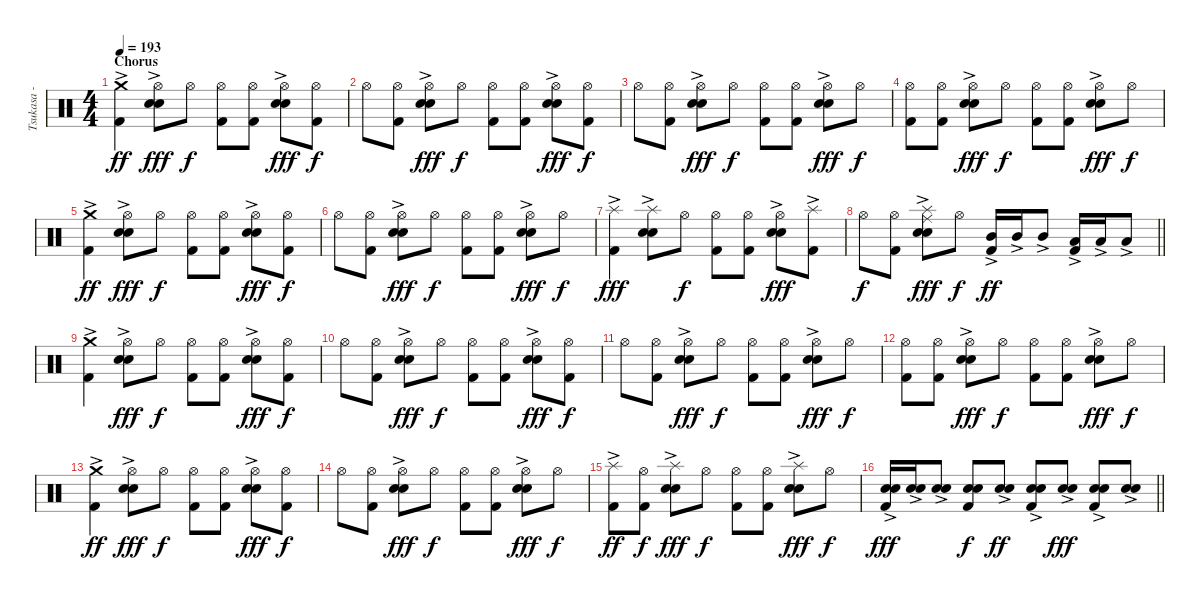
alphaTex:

\track ("Tsukasa - Drums" "Tsukasa - ") {instrument percussion}
\staff {score}
\articulation defaults
\ts (4 4)
\section ("" "Chorus")
\tempo 193
\clef neutral
\ks c
("Crash medium (hit)"{ac} "Kick (hit) 2").4{dy ff} ("Hi-Hat (open)" "Electric Snare (hit)"{ac} "Snare (hit) 2").8{dy fff} "Hi-Hat (open)".8{dy f} ("Hi-Hat (open)" "Kick (hit) 2").8 ("Hi-Hat (open)" "Kick (hit) 2").8 ("Hi-Hat (open)" "Electric Snare (hit)"{ac} "Snare (hit) 2").8{dy fff} ("Hi-Hat (open)" "Kick (hit) 2").8{dy f} |
"Hi-Hat (open)".8 ("Hi-Hat (open)" "Kick (hit) 2").8 ("Hi-Hat (open)" "Electric Snare (hit)"{ac} "Snare (hit) 2").8{dy fff} "Hi-Hat (open)".8{dy f} ("Hi-Hat (open)" "Kick (hit) 2").8 ("Hi-Hat (open)" "Kick (hit) 2").8 ("Hi-Hat (open)" "Electric Snare (hit)"{ac} "Snare (hit) 2").8{dy fff} ("Hi-Hat (open)" "Kick (hit) 2").8{dy f} |
"Hi-Hat (open)".8 ("Hi-Hat (open)" "Kick (hit) 2").8 ("Hi-Hat (open)" "Electric Snare (hit)"{ac} "Snare (hit) 2").8{dy fff} "Hi-Hat (open)".8{dy f} ("Hi-Hat (open)" "Kick (hit) 2").8 ("Hi-Hat (open)" "Kick (hit) 2").8 ("Hi-Hat (open)" "Electric Snare (hit)"{ac} "Snare (hit) 2").8{dy fff} "Hi-Hat (open)".8{dy f} |
("Hi-Hat (open)" "Kick (hit) 2").8 ("Hi-Hat (open)" "Kick (hit) 2").8 ("Hi-Hat (open)" "Electric Snare (hit)"{ac} "Snare (hit) 2").8{dy fff} "Hi-Hat (open)".8{dy f} ("Hi-Hat (open)" "Kick (hit) 2").8 ("Hi-Hat (open)" "Kick (hit) 2").8 ("Hi-Hat (open)" "Electric Snare (hit)"{ac} "Snare (hit) 2").8{dy fff} "Hi-Hat (open)".8{dy f} |
("Crash medium (hit)"{ac} "Kick (hit) 2").4{dy ff} ("Hi-Hat (open)" "Electric Snare (hit)"{ac} "Snare (hit) 2").8{dy fff} "Hi-Hat (open)".8{dy f} ("Hi-Hat (open)" "Kick (hit) 2").8 ("Hi-Hat (open)" "Kick (hit) 2").8 ("Hi-Hat (open)" "Electric Snare (hit)"{ac} "Snare (hit) 2").8{dy fff} ("Hi-Hat (open)" "Kick (hit) 2").8{dy f} |
"Hi-Hat (open)".8 ("Hi-Hat (open)" "Kick (hit) 2").8 ("Hi-Hat (open)" "Electric Snare (hit)"{ac} "Snare (hit) 2").8{dy fff} "Hi-Hat (open)".8{dy f} ("Hi-Hat (open)" "Kick (hit) 2").8 ("Hi-Hat (open)" "Kick (hit) 2").8 ("Hi-Hat (open)" "Electric Snare (hit)"{ac} "Snare (hit) 2").8{dy fff} "Hi-Hat (open)".8{dy f} |
("Splash (hit)"{ac} "Kick (hit) 2").4{dy fff} ("Splash (hit)"{ac} "Electric Snare (hit)"{ac} "Snare (hit) 2").8 "Hi-Hat (open)".8{dy f} ("Hi-Hat (open)" "Kick (hit) 2").8 ("Hi-Hat (open)" "Kick (hit) 2").8 ("Hi-Hat (open)" "Electric Snare (hit)"{ac} "Snare (hit) 2").8{dy fff} ("Splash (hit)"{ac} "Kick (hit) 2").8 |
\barLineRight lightlight "Hi-Hat (open)".8{dy f}
("Hi-Hat (open)" "Kick (hit) 2").8 ("Splash (hit)" "Ride (middle)"{ac} "Electric Snare (hit)"{ac} "Snare (hit) 2").8{dy fff} "Hi-Hat (open)".8{dy f} ("Mid Tom (hit)"{ac} "Kick (hit) 2").16{dy ff} "Mid Tom (hit)"{ac}.16 "Mid Tom (hit)"{ac}.8 ("Low Tom (hit)"{ac} "Kick (hit) 2").16 "Low Tom (hit)"{ac}.16 "Low Tom (hit)"{ac}.8 |
\section ("" "")
("Crash medium (hit)"{ac} "Kick (hit) 2").4 ("Hi-Hat (open)" "Electric Snare (hit)"{ac} "Snare (hit) 2").8{dy fff} "Hi-Hat (open)".8{dy f} ("Hi-Hat (open)" "Kick (hit) 2").8 ("Hi-Hat (open)" "Kick (hit) 2").8 ("Hi-Hat (open)" "Electric Snare (hit)"{ac} "Snare (hit) 2").8{dy fff} ("Hi-Hat (open)" "Kick (hit) 2").8{dy f} |
"Hi-Hat (open)".8 ("Hi-Hat (open)" "Kick (hit) 2").8 ("Hi-Hat (open)" "Electric Snare (hit)"{ac} "Snare (hit) 2").8{dy fff} "Hi-Hat (open)".8{dy f} ("Hi-Hat (open)" "Kick (hit) 2").8 ("Hi-Hat (open)" "Kick (hit) 2").8 ("Hi-Hat (open)" "Electric Snare (hit)"{ac} "Snare (hit) 2").8{dy fff} ("Hi-Hat (open)" "Kick (hit) 2").8{dy f} |
"Hi-Hat (open)".8 ("Hi-Hat (open)" "Kick (hit) 2").8 ("Hi-Hat (open)" "Electric Snare (hit)"{ac} "Snare (hit) 2").8{dy fff} "Hi-Hat (open)".8{dy f} ("Hi-Hat (open)" "Kick (hit) 2").8 ("Hi-Hat (open)" "Kick (hit) 2").8 ("Hi-Hat (open)" "Electric Snare (hit)"{ac} "Snare (hit) 2").8{dy fff} "Hi-Hat (open)".8{dy f} |
("Hi-Hat (open)" "Kick (hit) 2").8 ("Hi-Hat (open)" "Kick (hit) 2").8 ("Hi-Hat (open)" "Electric Snare (hit)"{ac} "Snare (hit) 2").8{dy fff} "Hi-Hat (open)".8{dy f} ("Hi-Hat (open)" "Kick (hit) 2").8 ("Hi-Hat (open)" "Kick (hit) 2").8 ("Hi-Hat (open)" "Electric Snare (hit)"{ac} "Snare (hit) 2").8{dy fff} "Hi-Hat (open)".8{dy f} |
("Crash medium (hit)"{ac} "Kick (hit) 2").4{dy ff} ("Hi-Hat (open)" "Electric Snare (hit)"{ac} "Snare (hit) 2").8{dy fff} "Hi-Hat (open)".8{dy f} ("Hi-Hat (open)" "Kick (hit) 2").8 ("Hi-Hat (open)" "Kick (hit) 2").8 ("Hi-Hat (open)" "Electric Snare (hit)"{ac} "Snare (hit) 2").8{dy fff} ("Hi-Hat (open)" "Kick (hit) 2").8{dy f} |
"Hi-Hat (open)".8 ("Hi-Hat (open)" "Kick (hit) 2").8 ("Hi-Hat (open)" "Electric Snare (hit)"{ac} "Snare (hit) 2").8{dy fff} "Hi-Hat (open)".8{dy f} ("Hi-Hat (open)" "Kick (hit) 2").8 ("Hi-Hat (open)" "Kick (hit) 2").8 ("Hi-Hat (open)" "Electric Snare (hit)"{ac} "Snare (hit) 2").8{dy fff} "Hi-Hat (open)".8{dy f} |
("Splash (hit)"{ac} "Kick (hit) 2").8{dy ff} ("Hi-Hat (open)" "Kick (hit) 2").8{dy f} ("Splash (hit)"{ac} "Electric Snare (hit)"{ac} "Snare (hit) 2").8{dy fff} "Hi-Hat (open)".8{dy f} ("Hi-Hat (open)" "Kick (hit) 2").8 ("Hi-Hat (open)" "Kick (hit) 2").8 ("Splash (hit)"{ac} "Electric Snare (hit)"{ac} "Snare (hit) 2").8{dy fff} "Hi-Hat (open)".8{dy f} |
\barLineRight lightlight
("Electric Snare (hit)"{ac} "Snare (hit) 2" "Kick (hit) 2").16{dy fff} ("Electric Snare (hit)"{ac} "Snare (hit) 2").16 ("Electric Snare (hit)"{ac} "Snare (hit) 2").8 ("Electric Snare (hit)" "Snare (hit) 2" "Kick (hit) 2").8{dy f} ("Electric Snare (hit)"{ac} "Snare (hit) 2").8{dy ff} ("Electric Snare (hit)"{ac} "Snare (hit) 2" "Kick (hit) 2").8 ("Electric Snare (hit)"{ac} "Snare (hit) 2").8{dy fff} ("Electric Snare (hit)"{ac} "Snare (hit) 2" "Kick (hit) 2").8 ("Electric Snare (hit)"{ac} "Snare (hit) 2").8
